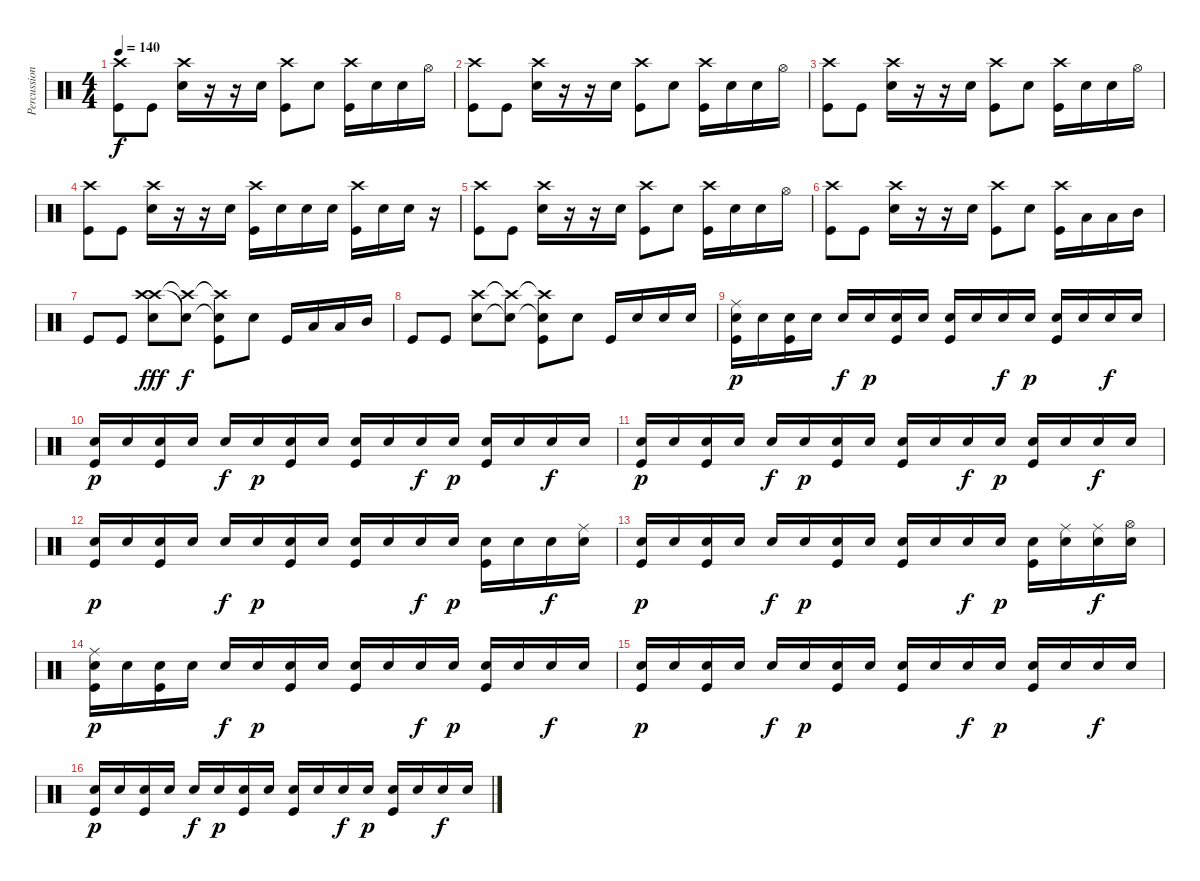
\track ("Percussion" "Percussion") {instrument percussion}
\staff {score}
\articulation defaults
\ts (4 4)
\tempo 140
\clef neutral
\ks c
("Crash high (hit)" "Kick (hit)").8{dy f} "Kick (hit)".8 ("Crash high (hit)" "Snare (hit) 2").16 r.16 r.16 "Snare (hit) 2".16 ("Crash high (hit)" "Kick (hit)").8 "Snare (hit) 2".8 ("Crash high (hit)" "Kick (hit)").16 "Snare (hit) 2".16 "Snare (hit) 2".16 "Hi-Hat (open)".16 |
("Crash high (hit)" "Kick (hit)").8 "Kick (hit)".8 ("Crash high (hit)" "Snare (hit) 2").16 r.16 r.16 "Snare (hit) 2".16 ("Crash high (hit)" "Kick (hit)").8 "Snare (hit) 2".8 ("Crash high (hit)" "Kick (hit)").16 "Snare (hit) 2".16 "Snare (hit) 2".16 "Hi-Hat (open)".16 |
("Crash high (hit)" "Kick (hit)").8 "Kick (hit)".8 ("Crash high (hit)" "Snare (hit) 2").16 r.16 r.16 "Snare (hit) 2".16 ("Crash high (hit)" "Kick (hit)").8 "Snare (hit) 2".8 ("Crash high (hit)" "Kick (hit)").16 "Snare (hit) 2".16 "Snare (hit) 2".16 "Hi-Hat (open)".16 |
("Crash high (hit)" "Kick (hit)").8 "Kick (hit)".8 ("Crash high (hit)" "Snare (hit) 2").16 r.16 r.16 "Snare (hit) 2".16 ("Crash high (hit)" "Kick (hit)").16 "Snare (hit) 2".16 "Snare (hit) 2".16 "Snare (hit) 2".16 ("Crash high (hit)" "Kick (hit)").16 "Snare (hit) 2".16 "Snare (hit) 2".16 r.16 |
("Crash high (hit)" "Kick (hit)").8 "Kick (hit)".8 ("Crash high (hit)" "Snare (hit) 2").16 r.16 r.16 "Snare (hit) 2".16 ("Crash high (hit)" "Kick (hit)").8 "Snare (hit) 2".8 ("Crash high (hit)" "Kick (hit)").16 "Snare (hit) 2".16 "Snare (hit) 2".16 "Hi-Hat (open)".16 |
("Crash high (hit)" "Kick (hit)").8 "Kick (hit)".8 ("Crash high (hit)" "Snare (hit) 2").16 r.16 r.16 "Snare (hit) 2".16 ("Crash high (hit)" "Kick (hit)").8 "Snare (hit) 2".8 ("Crash high (hit)" "Kick (hit)").16 "Low Tom (hit)".16 "Low Tom (hit)".16 "Mid Tom (hit)".16 |
"Kick (hit)".8 "Kick (hit)".8 ("Crash high (hit)" "Crash high (hit)" "Snare (hit) 2").8{dy fff} ("Snare (hit)"{t} "Crash high (hit)"{t}).8{dy f} ("Snare (hit)"{t} "Crash high (hit)"{t} "Kick (hit)").8 "Snare (hit) 2".8 "Kick (hit)".16 "Low Tom (hit)".16 "Low Tom (hit)".16 "Mid Tom (hit)".16 |
"Kick (hit)".8 "Kick (hit)".8 ("Crash high (hit)" "Snare (hit) 2").8 ("Crash high (hit)"{t} "Snare (hit)"{t}).8 ("Crash high (hit)"{t} "Snare (hit) 2"{t} "Kick (hit)").8 "Snare (hit) 2".8 "Kick (hit)".16 "Snare (hit) 2".16 "Snare (hit) 2".16 "Snare (hit) 2".16 |
("Ride (middle)" "Snare (hit) 2" "Kick (hit)").16{dy p} "Snare (hit) 2".16 ("Snare (hit) 2" "Kick (hit)").16 "Snare (hit) 2".16 "Snare (hit) 2".16{dy f} "Snare (hit) 2".16{dy p} ("Snare (hit) 2" "Kick (hit)").16 "Snare (hit) 2".16 ("Snare (hit) 2" "Kick (hit)").16 "Snare (hit) 2".16 "Snare (hit) 2".16{dy f} "Snare (hit) 2".16{dy p} ("Snare (hit) 2" "Kick (hit)").16 "Snare (hit) 2".16 "Snare (hit) 2".16{dy f} "Snare (hit) 2".16 |
("Snare (hit) 2" "Kick (hit)").16{dy p} "Snare (hit) 2".16 ("Snare (hit) 2" "Kick (hit)").16 "Snare (hit) 2".16 "Snare (hit) 2".16{dy f} "Snare (hit) 2".16{dy p} ("Snare (hit) 2" "Kick (hit)").16 "Snare (hit) 2".16 ("Snare (hit) 2" "Kick (hit)").16 "Snare (hit) 2".16 "Snare (hit) 2".16{dy f} "Snare (hit) 2".16{dy p} ("Snare (hit) 2" "Kick (hit)").16 "Snare (hit) 2".16 "Snare (hit) 2".16{dy f} "Snare (hit) 2".16 |
("Snare (hit) 2" "Kick (hit)").16{dy p} "Snare (hit) 2".16 ("Snare (hit) 2" "Kick (hit)").16 "Snare (hit) 2".16 "Snare (hit) 2".16{dy f} "Snare (hit) 2".16{dy p} ("Snare (hit) 2" "Kick (hit)").16 "Snare (hit) 2".16 ("Snare (hit) 2" "Kick (hit)").16 "Snare (hit) 2".16 "Snare (hit) 2".16{dy f} "Snare (hit) 2".16{dy p} ("Snare (hit) 2" "Kick (hit)").16 "Snare (hit) 2".16 "Snare (hit) 2".16{dy f} "Snare (hit) 2".16 |
("Snare (hit) 2" "Kick (hit)").16{dy p} "Snare (hit) 2".16 ("Snare (hit) 2" "Kick (hit)").16 "Snare (hit) 2".16 "Snare (hit) 2".16{dy f} "Snare (hit) 2".16{dy p} ("Snare (hit) 2" "Kick (hit)").16 "Snare (hit) 2".16 ("Snare (hit) 2" "Kick (hit)").16 "Snare (hit) 2".16 "Snare (hit) 2".16{dy f} "Snare (hit) 2".16{dy p} ("Snare (hit) 2" "Kick (hit)").16 "Snare (hit) 2".16 "Snare (hit) 2".16{dy f} ("Ride (middle)" "Snare (hit) 2").16 |
("Snare (hit) 2" "Kick (hit)").16{dy p} "Snare (hit) 2".16 ("Snare (hit) 2" "Kick (hit)").16 "Snare (hit) 2".16 "Snare (hit) 2".16{dy f} "Snare (hit) 2".16{dy p} ("Snare (hit) 2" "Kick (hit)").16 "Snare (hit) 2".16 ("Snare (hit) 2" "Kick (hit)").16 "Snare (hit) 2".16 "Snare (hit) 2".16{dy f} "Snare (hit) 2".16{dy p} ("Snare (hit) 2" "Kick (hit)").16 ("Ride (middle)" "Snare (hit) 2").16 ("Ride (middle)" "Snare (hit) 2").16{dy f} ("Hi-Hat (open)" "Snare (hit) 2").16 |
("Ride (middle)" "Snare (hit) 2" "Kick (hit)").16{dy p} "Snare (hit) 2".16 ("Snare (hit) 2" "Kick (hit)").16 "Snare (hit) 2".16 "Snare (hit) 2".16{dy f} "Snare (hit) 2".16{dy p} ("Snare (hit) 2" "Kick (hit)").16 "Snare (hit) 2".16 ("Snare (hit) 2" "Kick (hit)").16 "Snare (hit) 2".16 "Snare (hit) 2".16{dy f} "Snare (hit) 2".16{dy p} ("Snare (hit) 2" "Kick (hit)").16 "Snare (hit) 2".16 "Snare (hit) 2".16{dy f} "Snare (hit) 2".16 |
("Snare (hit) 2" "Kick (hit)").16{dy p} "Snare (hit) 2".16 ("Snare (hit) 2" "Kick (hit)").16 "Snare (hit) 2".16 "Snare (hit) 2".16{dy f} "Snare (hit) 2".16{dy p} ("Snare (hit) 2" "Kick (hit)").16 "Snare (hit) 2".16 ("Snare (hit) 2" "Kick (hit)").16 "Snare (hit) 2".16 "Snare (hit) 2".16{dy f} "Snare (hit) 2".16{dy p} ("Snare (hit) 2" "Kick (hit)").16 "Snare (hit) 2".16 "Snare (hit) 2".16{dy f} "Snare (hit) 2".16 |
("Snare (hit) 2" "Kick (hit)").16{dy p} "Snare (hit) 2".16 ("Snare (hit) 2" "Kick (hit)").16 "Snare (hit) 2".16 "Snare (hit) 2".16{dy f} "Snare (hit) 2".16{dy p} ("Snare (hit) 2" "Kick (hit)").16 "Snare (hit) 2".16 ("Snare (hit) 2" "Kick (hit)").16 "Snare (hit) 2".16 "Snare (hit) 2".16{dy f} "Snare (hit) 2".16{dy p} ("Snare (hit) 2" "Kick (hit)").16 "Snare (hit) 2".16 "Snare (hit) 2".16{dy f} "Snare (hit) 2".16
